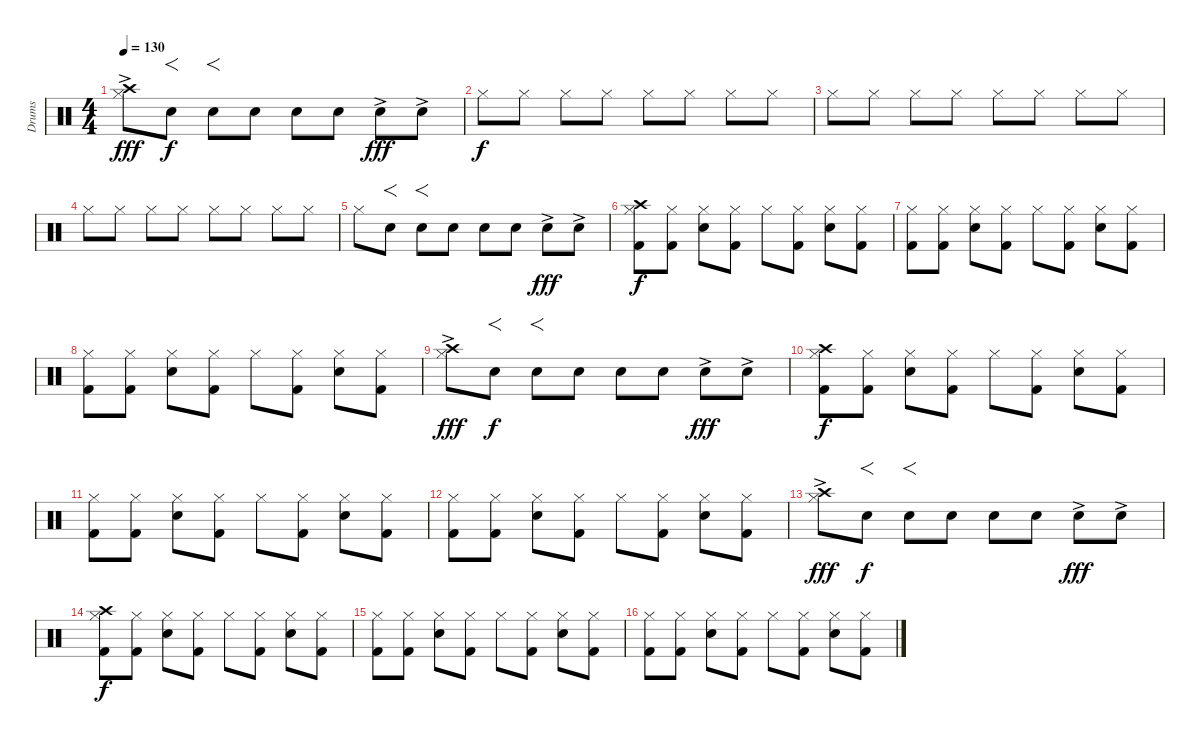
\track ("Drums" "Drums") {instrument percussion}
\staff {score}
\articulation defaults
\ts (4 4)
\tempo 130
\clef neutral
\ks c
("Crash high (hit)"{ac} "Hi-Hat (closed)").8{dy fff} "Snare (hit) 2".8{f dy f} "Snare (hit) 2".8{f} "Snare (hit) 2".8 "Snare (hit) 2".8 "Snare (hit) 2".8 "Snare (hit) 2"{ac}.8{dy fff} "Snare (hit) 2"{ac}.8 |
"Hi-Hat (closed)".8{dy f} "Hi-Hat (closed)".8 "Hi-Hat (closed)".8 "Hi-Hat (closed)".8 "Hi-Hat (closed)".8 "Hi-Hat (closed)".8 "Hi-Hat (closed)".8 "Hi-Hat (closed)".8 |
"Hi-Hat (closed)".8 "Hi-Hat (closed)".8 "Hi-Hat (closed)".8 "Hi-Hat (closed)".8 "Hi-Hat (closed)".8 "Hi-Hat (closed)".8 "Hi-Hat (closed)".8 "Hi-Hat (closed)".8 |
"Hi-Hat (closed)".8 "Hi-Hat (closed)".8 "Hi-Hat (closed)".8 "Hi-Hat (closed)".8 "Hi-Hat (closed)".8 "Hi-Hat (closed)".8 "Hi-Hat (closed)".8 "Hi-Hat (closed)".8 |
"Hi-Hat (closed)".8 "Snare (hit) 2".8{f} "Snare (hit) 2".8{f} "Snare (hit) 2".8 "Snare (hit) 2".8 "Snare (hit) 2".8 "Snare (hit) 2"{ac}.8{dy fff} "Snare (hit) 2"{ac}.8 |
("Crash high (hit)" "Hi-Hat (closed)" "Kick (hit) 2").8{dy f} ("Hi-Hat (closed)" "Kick (hit) 2").8 ("Hi-Hat (closed)" "Snare (hit) 2").8 ("Hi-Hat (closed)" "Kick (hit) 2").8 "Hi-Hat (closed)".8 ("Hi-Hat (closed)" "Kick (hit) 2").8 ("Hi-Hat (closed)" "Snare (hit) 2").8 ("Hi-Hat (closed)" "Kick (hit) 2").8 |
("Hi-Hat (closed)" "Kick (hit) 2").8 ("Hi-Hat (closed)" "Kick (hit) 2").8 ("Hi-Hat (closed)" "Snare (hit) 2").8 ("Hi-Hat (closed)" "Kick (hit) 2").8 "Hi-Hat (closed)".8 ("Hi-Hat (closed)" "Kick (hit) 2").8 ("Hi-Hat (closed)" "Snare (hit) 2").8 ("Hi-Hat (closed)" "Kick (hit) 2").8 |
("Hi-Hat (closed)" "Kick (hit) 2").8 ("Hi-Hat (closed)" "Kick (hit) 2").8 ("Hi-Hat (closed)" "Snare (hit) 2").8 ("Hi-Hat (closed)" "Kick (hit) 2").8 "Hi-Hat (closed)".8 ("Hi-Hat (closed)" "Kick (hit) 2").8 ("Hi-Hat (closed)" "Snare (hit) 2").8 ("Hi-Hat (closed)" "Kick (hit) 2").8 |
("Crash high (hit)"{ac} "Hi-Hat (closed)").8{dy fff} "Snare (hit) 2".8{f dy f} "Snare (hit) 2".8{f} "Snare (hit) 2".8 "Snare (hit) 2".8 "Snare (hit) 2".8 "Snare (hit) 2"{ac}.8{dy fff} "Snare (hit) 2"{ac}.8 |
("Crash high (hit)" "Hi-Hat (closed)" "Kick (hit) 2").8{dy f} ("Hi-Hat (closed)" "Kick (hit) 2").8 ("Hi-Hat (closed)" "Snare (hit) 2").8 ("Hi-Hat (closed)" "Kick (hit) 2").8 "Hi-Hat (closed)".8 ("Hi-Hat (closed)" "Kick (hit) 2").8 ("Hi-Hat (closed)" "Snare (hit) 2").8 ("Hi-Hat (closed)" "Kick (hit) 2").8 |
("Hi-Hat (closed)" "Kick (hit) 2").8 ("Hi-Hat (closed)" "Kick (hit) 2").8 ("Hi-Hat (closed)" "Snare (hit) 2").8 ("Hi-Hat (closed)" "Kick (hit) 2").8 "Hi-Hat (closed)".8 ("Hi-Hat (closed)" "Kick (hit) 2").8 ("Hi-Hat (closed)" "Snare (hit) 2").8 ("Hi-Hat (closed)" "Kick (hit) 2").8 |
("Hi-Hat (closed)" "Kick (hit) 2").8 ("Hi-Hat (closed)" "Kick (hit) 2").8 ("Hi-Hat (closed)" "Snare (hit) 2").8 ("Hi-Hat (closed)" "Kick (hit) 2").8 "Hi-Hat (closed)".8 ("Hi-Hat (closed)" "Kick (hit) 2").8 ("Hi-Hat (closed)" "Snare (hit) 2").8 ("Hi-Hat (closed)" "Kick (hit) 2").8 |
("Crash high (hit)"{ac} "Hi-Hat (closed)").8{dy fff} "Snare (hit) 2".8{f dy f} "Snare (hit) 2".8{f} "Snare (hit) 2".8 "Snare (hit) 2".8 "Snare (hit) 2".8 "Snare (hit) 2"{ac}.8{dy fff} "Snare (hit) 2"{ac}.8 |
("Crash high (hit)" "Hi-Hat (closed)" "Kick (hit) 2").8{dy f} ("Hi-Hat (closed)" "Kick (hit) 2").8 ("Hi-Hat (closed)" "Snare (hit) 2").8 ("Hi-Hat (closed)" "Kick (hit) 2").8 "Hi-Hat (closed)".8 ("Hi-Hat (closed)" "Kick (hit) 2").8 ("Hi-Hat (closed)" "Snare (hit) 2").8 ("Hi-Hat (closed)" "Kick (hit) 2").8 |
("Hi-Hat (closed)" "Kick (hit) 2").8 ("Hi-Hat (closed)" "Kick (hit) 2").8 ("Hi-Hat (closed)" "Snare (hit) 2").8 ("Hi-Hat (closed)" "Kick (hit) 2").8 "Hi-Hat (closed)".8 ("Hi-Hat (closed)" "Kick (hit) 2").8 ("Hi-Hat (closed)" "Snare (hit) 2").8 ("Hi-Hat (closed)" "Kick (hit) 2").8 |
("Hi-Hat (closed)" "Kick (hit) 2").8 ("Hi-Hat (closed)" "Kick (hit) 2").8 ("Hi-Hat (closed)" "Snare (hit) 2").8 ("Hi-Hat (closed)" "Kick (hit) 2").8 "Hi-Hat (closed)".8 ("Hi-Hat (closed)" "Kick (hit) 2").8 ("Hi-Hat (closed)" "Snare (hit) 2").8 ("Hi-Hat (closed)" "Kick (hit) 2").8
